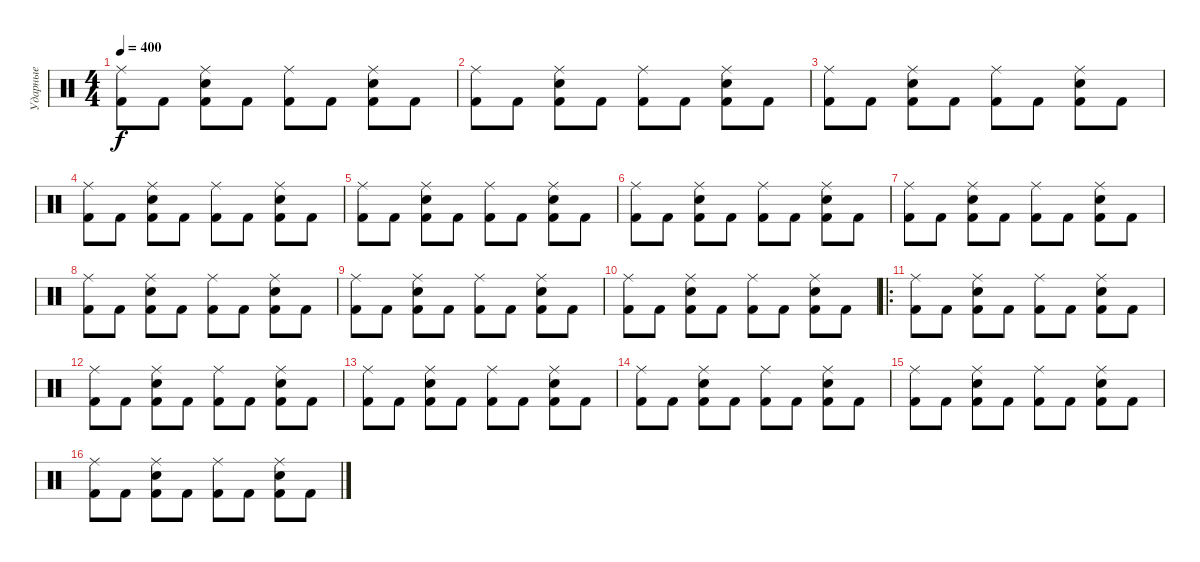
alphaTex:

\track ("Ударные" "Ударные") {instrument percussion}
\staff {score}
\articulation defaults
\ts (4 4)
\tempo 400
\clef neutral
\ks c
("Ride (middle)" "Kick (hit) 2").8{dy f} "Kick (hit) 2".8 ("Ride (middle)" "Snare (hit) 2" "Kick (hit) 2").8 "Kick (hit) 2".8 ("Ride (middle)" "Kick (hit) 2").8 "Kick (hit) 2".8 ("Ride (middle)" "Snare (hit) 2" "Kick (hit) 2").8 "Kick (hit) 2".8 |
("Ride (middle)" "Kick (hit) 2").8 "Kick (hit) 2".8 ("Ride (middle)" "Snare (hit) 2" "Kick (hit) 2").8 "Kick (hit) 2".8 ("Ride (middle)" "Kick (hit) 2").8 "Kick (hit) 2".8 ("Ride (middle)" "Snare (hit) 2" "Kick (hit) 2").8 "Kick (hit) 2".8 |
("Ride (middle)" "Kick (hit) 2").8 "Kick (hit) 2".8 ("Ride (middle)" "Snare (hit) 2" "Kick (hit) 2").8 "Kick (hit) 2".8 ("Ride (middle)" "Kick (hit) 2").8 "Kick (hit) 2".8 ("Ride (middle)" "Snare (hit) 2" "Kick (hit) 2").8 "Kick (hit) 2".8 |
("Ride (middle)" "Kick (hit) 2").8 "Kick (hit) 2".8 ("Ride (middle)" "Snare (hit) 2" "Kick (hit) 2").8 "Kick (hit) 2".8 ("Ride (middle)" "Kick (hit) 2").8 "Kick (hit) 2".8 ("Ride (middle)" "Snare (hit) 2" "Kick (hit) 2").8 "Kick (hit) 2".8 |
("Ride (middle)" "Kick (hit) 2").8 "Kick (hit) 2".8 ("Ride (middle)" "Snare (hit) 2" "Kick (hit) 2").8 "Kick (hit) 2".8 ("Ride (middle)" "Kick (hit) 2").8 "Kick (hit) 2".8 ("Ride (middle)" "Snare (hit) 2" "Kick (hit) 2").8 "Kick (hit) 2".8 |
("Ride (middle)" "Kick (hit) 2").8 "Kick (hit) 2".8 ("Ride (middle)" "Snare (hit) 2" "Kick (hit) 2").8 "Kick (hit) 2".8 ("Ride (middle)" "Kick (hit) 2").8 "Kick (hit) 2".8 ("Ride (middle)" "Snare (hit) 2" "Kick (hit) 2").8 "Kick (hit) 2".8 |
("Ride (middle)" "Kick (hit) 2").8 "Kick (hit) 2".8 ("Ride (middle)" "Snare (hit) 2" "Kick (hit) 2").8 "Kick (hit) 2".8 ("Ride (middle)" "Kick (hit) 2").8 "Kick (hit) 2".8 ("Ride (middle)" "Snare (hit) 2" "Kick (hit) 2").8 "Kick (hit) 2".8 |
("Ride (middle)" "Kick (hit) 2").8 "Kick (hit) 2".8 ("Ride (middle)" "Snare (hit) 2" "Kick (hit) 2").8 "Kick (hit) 2".8 ("Ride (middle)" "Kick (hit) 2").8 "Kick (hit) 2".8 ("Ride (middle)" "Snare (hit) 2" "Kick (hit) 2").8 "Kick (hit) 2".8 |
("Ride (middle)" "Kick (hit) 2").8 "Kick (hit) 2".8 ("Ride (middle)" "Snare (hit) 2" "Kick (hit) 2").8 "Kick (hit) 2".8 ("Ride (middle)" "Kick (hit) 2").8 "Kick (hit) 2".8 ("Ride (middle)" "Snare (hit) 2" "Kick (hit) 2").8 "Kick (hit) 2".8 |
("Ride (middle)" "Kick (hit) 2").8 "Kick (hit) 2".8 ("Ride (middle)" "Snare (hit) 2" "Kick (hit) 2").8 "Kick (hit) 2".8 ("Ride (middle)" "Kick (hit) 2").8 "Kick (hit) 2".8 ("Ride (middle)" "Snare (hit) 2" "Kick (hit) 2").8 "Kick (hit) 2".8 |
\ro
("Ride (middle)" "Kick (hit) 2").8 "Kick (hit) 2".8 ("Ride (middle)" "Snare (hit) 2" "Kick (hit) 2").8 "Kick (hit) 2".8 ("Ride (middle)" "Kick (hit) 2").8 "Kick (hit) 2".8 ("Ride (middle)" "Snare (hit) 2" "Kick (hit) 2").8 "Kick (hit) 2".8 |
("Ride (middle)" "Kick (hit) 2").8 "Kick (hit) 2".8 ("Ride (middle)" "Snare (hit) 2" "Kick (hit) 2").8 "Kick (hit) 2".8 ("Ride (middle)" "Kick (hit) 2").8 "Kick (hit) 2".8 ("Ride (middle)" "Snare (hit) 2" "Kick (hit) 2").8 "Kick (hit) 2".8 |
("Ride (middle)" "Kick (hit) 2").8 "Kick (hit) 2".8 ("Ride (middle)" "Snare (hit) 2" "Kick (hit) 2").8 "Kick (hit) 2".8 ("Ride (middle)" "Kick (hit) 2").8 "Kick (hit) 2".8 ("Ride (middle)" "Snare (hit) 2" "Kick (hit) 2").8 "Kick (hit) 2".8 |
("Ride (middle)" "Kick (hit) 2").8 "Kick (hit) 2".8 ("Ride (middle)" "Snare (hit) 2" "Kick (hit) 2").8 "Kick (hit) 2".8 ("Ride (middle)" "Kick (hit) 2").8 "Kick (hit) 2".8 ("Ride (middle)" "Snare (hit) 2" "Kick (hit) 2").8 "Kick (hit) 2".8 |
("Ride (middle)" "Kick (hit) 2").8 "Kick (hit) 2".8 ("Ride (middle)" "Snare (hit) 2" "Kick (hit) 2").8 "Kick (hit) 2".8 ("Ride (middle)" "Kick (hit) 2").8 "Kick (hit) 2".8 ("Ride (middle)" "Snare (hit) 2" "Kick (hit) 2").8 "Kick (hit) 2".8 |
("Ride (middle)" "Kick (hit) 2").8 "Kick (hit) 2".8 ("Ride (middle)" "Snare (hit) 2" "Kick (hit) 2").8 "Kick (hit) 2".8 ("Ride (middle)" "Kick (hit) 2").8 "Kick (hit) 2".8 ("Ride (middle)" "Snare (hit) 2" "Kick (hit) 2").8 "Kick (hit) 2".8
